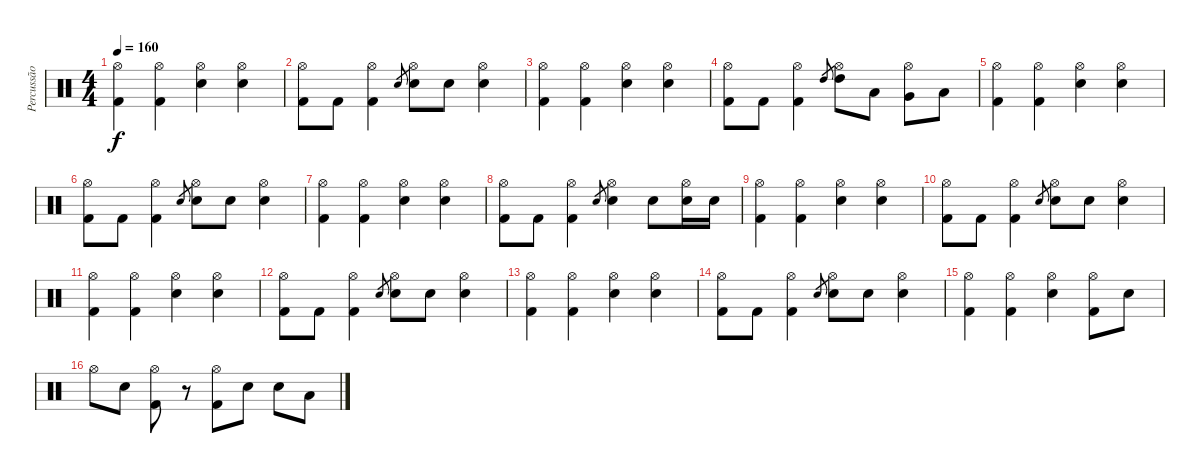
\track ("Percussão" "Percussão") {instrument percussion}
\staff {score}
\articulation defaults
\ts (4 4)
\tempo 160
\clef neutral
\ks c
("Hi-Hat (open)" "Kick (hit) 2").4{dy f} ("Hi-Hat (open)" "Kick (hit) 2").4 ("Hi-Hat (open)" "Electric Snare (hit)").4 ("Hi-Hat (open)" "Electric Snare (hit)").4 |
("Hi-Hat (open)" "Kick (hit) 2").8 "Kick (hit) 2".8 ("Hi-Hat (open)" "Kick (hit) 2").4 "Electric Snare (hit)".8{gr} ("Hi-Hat (open)" "Electric Snare (hit)").8 "Electric Snare (hit)".8 ("Hi-Hat (open)" "Electric Snare (hit)").4 |
("Hi-Hat (open)" "Kick (hit) 2").4 ("Hi-Hat (open)" "Kick (hit) 2").4 ("Hi-Hat (open)" "Electric Snare (hit)").4 ("Hi-Hat (open)" "Electric Snare (hit)").4 |
("Hi-Hat (open)" "Kick (hit) 2").8 "Kick (hit) 2".8 ("Hi-Hat (open)" "Kick (hit) 2").4 "High Tom (hit)".8{gr} ("Hi-Hat (open)" "High Tom (hit)").8 "Low Tom (hit)".8 ("Hi-Hat (open)" "Very Low Tom (hit)").8 "Low Floor Tom (hit)".8 |
("Hi-Hat (open)" "Kick (hit) 2").4 ("Hi-Hat (open)" "Kick (hit) 2").4 ("Hi-Hat (open)" "Electric Snare (hit)").4 ("Hi-Hat (open)" "Electric Snare (hit)").4 |
("Hi-Hat (open)" "Kick (hit) 2").8 "Kick (hit) 2".8 ("Hi-Hat (open)" "Kick (hit) 2").4 "Electric Snare (hit)".8{gr} ("Hi-Hat (open)" "Electric Snare (hit)").8 "Electric Snare (hit)".8 ("Hi-Hat (open)" "Electric Snare (hit)").4 |
("Hi-Hat (open)" "Kick (hit) 2").4 ("Hi-Hat (open)" "Kick (hit) 2").4 ("Hi-Hat (open)" "Electric Snare (hit)").4 ("Hi-Hat (open)" "Electric Snare (hit)").4 |
("Hi-Hat (open)" "Kick (hit) 2").8 "Kick (hit) 2".8 ("Hi-Hat (open)" "Kick (hit) 2").4 "Electric Snare (hit)".8{gr} ("Hi-Hat (open)" "Electric Snare (hit)").4 "Electric Snare (hit)".8 ("Hi-Hat (open)" "Electric Snare (hit)").16 "Electric Snare (hit)".16 |
("Hi-Hat (open)" "Kick (hit) 2").4 ("Hi-Hat (open)" "Kick (hit) 2").4 ("Hi-Hat (open)" "Electric Snare (hit)").4 ("Hi-Hat (open)" "Electric Snare (hit)").4 |
("Hi-Hat (open)" "Kick (hit) 2").8 "Kick (hit) 2".8 ("Hi-Hat (open)" "Kick (hit) 2").4 "Electric Snare (hit)".8{gr} ("Hi-Hat (open)" "Electric Snare (hit)").8 "Electric Snare (hit)".8 ("Hi-Hat (open)" "Electric Snare (hit)").4 |
("Hi-Hat (open)" "Kick (hit) 2").4 ("Hi-Hat (open)" "Kick (hit) 2").4 ("Hi-Hat (open)" "Electric Snare (hit)").4 ("Hi-Hat (open)" "Electric Snare (hit)").4 |
("Hi-Hat (open)" "Kick (hit) 2").8 "Kick (hit) 2".8 ("Hi-Hat (open)" "Kick (hit) 2").4 "Electric Snare (hit)".8{gr} ("Hi-Hat (open)" "Electric Snare (hit)").8 "Electric Snare (hit)".8 ("Hi-Hat (open)" "Electric Snare (hit)").4 |
("Hi-Hat (open)" "Kick (hit) 2").4 ("Hi-Hat (open)" "Kick (hit) 2").4 ("Hi-Hat (open)" "Electric Snare (hit)").4 ("Hi-Hat (open)" "Electric Snare (hit)").4 |
("Hi-Hat (open)" "Kick (hit) 2").8 "Kick (hit) 2".8 ("Hi-Hat (open)" "Kick (hit) 2").4 "Electric Snare (hit)".8{gr} ("Hi-Hat (open)" "Electric Snare (hit)").8 "Electric Snare (hit)".8 ("Hi-Hat (open)" "Electric Snare (hit)").4 |
("Hi-Hat (open)" "Kick (hit) 2").4 ("Hi-Hat (open)" "Kick (hit) 2").4 ("Hi-Hat (open)" "Electric Snare (hit)").4 ("Hi-Hat (open)" "Kick (hit) 2").8 "Electric Snare (hit)".8 |
"Hi-Hat (open)".8 "Electric Snare (hit)".8 ("Hi-Hat (open)" "Kick (hit) 2").8 r.8 ("Hi-Hat (open)" "Kick (hit) 2").8 "Electric Snare (hit)".8 "Electric Snare (hit)".8 "Low Tom (hit)".8
